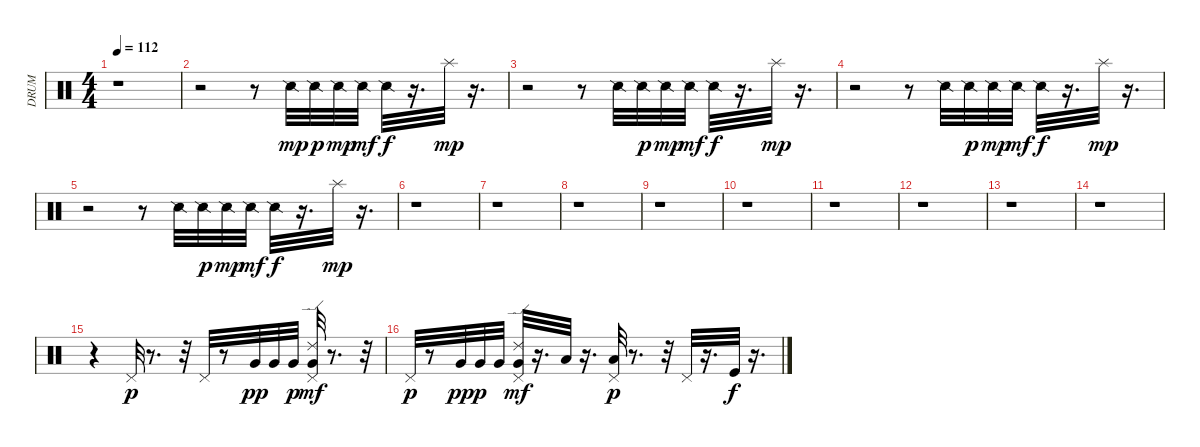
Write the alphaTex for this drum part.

\track ("DRUM" "DRUM") {instrument percussion}
\staff {score}
\articulation defaults
\ts (4 4)
\tempo 112
\clef neutral
\ks c
r.1{dy mp} |
r.2 r.8 "Snare (side stick) 2".32 "Snare (side stick) 2".32{dy p} "Snare (side stick) 2".32{dy mp} "Snare (side stick) 2".32{dy mf} "Snare (side stick) 2".32{dy f} r.16{d} "Splash (hit)".32{dy mp} r.16{d} |
r.2 r.8 "Snare (side stick) 2".32 "Snare (side stick) 2".32{dy p} "Snare (side stick) 2".32{dy mp} "Snare (side stick) 2".32{dy mf} "Snare (side stick) 2".32{dy f} r.16{d} "Splash (hit)".32{dy mp} r.16{d} |
r.2 r.8 "Snare (side stick) 2".32 "Snare (side stick) 2".32{dy p} "Snare (side stick) 2".32{dy mp} "Snare (side stick) 2".32{dy mf} "Snare (side stick) 2".32{dy f} r.16{d} "Splash (hit)".32{dy mp} r.16{d} |
r.2 r.8 "Snare (side stick) 2".32 "Snare (side stick) 2".32{dy p} "Snare (side stick) 2".32{dy mp} "Snare (side stick) 2".32{dy mf} "Snare (side stick) 2".32{dy f} r.16{d} "Splash (hit)".32{dy mp} r.16{d} |
r.1 |
r.1 |
r.1 |
r.1 |
r.1 |
r.1 |
r.1 |
r.1 |
r.1 |
r.4 "Pedal Hi-Hat (hit)".32{dy p} r.8{d} r.32 "Pedal Hi-Hat (hit)".32 r.8 "Very Low Tom (hit)".32{dy pp} "Very Low Tom (hit)".32 "Very Low Tom (hit)".32{dy p} ("Pedal Hi-Hat (hit)" "Ride (edge) 2" "Very Low Tom (hit)").32{dy mf} r.8{d} r.32 |
"Pedal Hi-Hat (hit)".32{dy p} r.8 "Very Low Tom (hit)".32{dy pp} "Very Low Tom (hit)".32{dy p} "Very Low Tom (hit)".32 ("Pedal Hi-Hat (hit)" "Ride (edge) 2" "Very Low Tom (hit)").32{dy mf} r.16{d} "Low Floor Tom (hit)".32 r.16{d} ("Low Floor Tom (hit)" "Pedal Hi-Hat (hit)").32{dy p} r.8{d} r.32 "Pedal Hi-Hat (hit)".32 r.16{d} "Kick (hit)".32{dy f} r.16{d}
